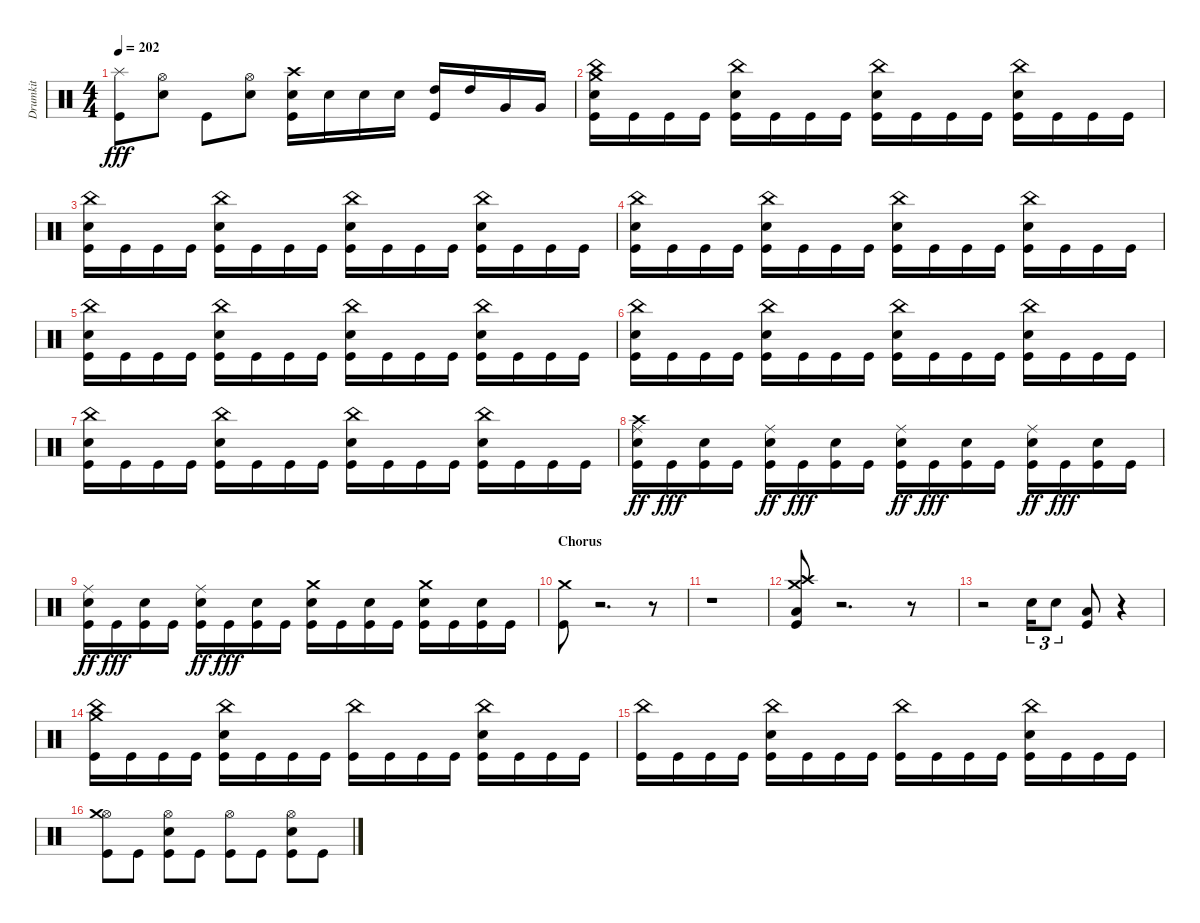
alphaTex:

\track ("Drumkit" "Drumkit") {instrument percussion}
\staff {score}
\articulation defaults
\ts (4 4)
\tempo 202
\clef neutral
\ks c
("Splash (hit)" "Kick (hit)").8{dy fff} ("Snare (hit) 2" "Hi-Hat (open)").8 "Kick (hit)".8 ("Snare (hit) 2" "Hi-Hat (open)").8 ("Snare (hit) 2" "Crash high (hit)" "Kick (hit)").16 "Snare (hit) 2".16 "Snare (hit) 2".16 "Snare (hit) 2".16 ("High Tom (hit)" "Kick (hit)").16 "High Tom (hit)".16 "Very Low Tom (hit)".16 "Very Low Tom (hit)".16 |
("China (hit)" "Snare (hit) 2" "Crash medium (hit)" "Kick (hit)").16 "Kick (hit)".16 "Kick (hit)".16 "Kick (hit)".16 ("China (hit)" "Snare (hit) 2" "Kick (hit)").16 "Kick (hit)".16 "Kick (hit)".16 "Kick (hit)".16 ("China (hit)" "Snare (hit) 2" "Kick (hit)").16 "Kick (hit)".16 "Kick (hit)".16 "Kick (hit)".16 ("China (hit)" "Snare (hit) 2" "Kick (hit)").16 "Kick (hit)".16 "Kick (hit)".16 "Kick (hit)".16 |
("China (hit)" "Snare (hit) 2" "Kick (hit)").16 "Kick (hit)".16 "Kick (hit)".16 "Kick (hit)".16 ("China (hit)" "Snare (hit) 2" "Kick (hit)").16 "Kick (hit)".16 "Kick (hit)".16 "Kick (hit)".16 ("China (hit)" "Snare (hit) 2" "Kick (hit)").16 "Kick (hit)".16 "Kick (hit)".16 "Kick (hit)".16 ("China (hit)" "Snare (hit) 2" "Kick (hit)").16 "Kick (hit)".16 "Kick (hit)".16 "Kick (hit)".16 |
("China (hit)" "Snare (hit) 2" "Kick (hit)").16 "Kick (hit)".16 "Kick (hit)".16 "Kick (hit)".16 ("China (hit)" "Snare (hit) 2" "Kick (hit)").16 "Kick (hit)".16 "Kick (hit)".16 "Kick (hit)".16 ("China (hit)" "Snare (hit) 2" "Kick (hit)").16 "Kick (hit)".16 "Kick (hit)".16 "Kick (hit)".16 ("China (hit)" "Snare (hit) 2" "Kick (hit)").16 "Kick (hit)".16 "Kick (hit)".16 "Kick (hit)".16 |
("China (hit)" "Snare (hit) 2" "Kick (hit)").16 "Kick (hit)".16 "Kick (hit)".16 "Kick (hit)".16 ("China (hit)" "Snare (hit) 2" "Kick (hit)").16 "Kick (hit)".16 "Kick (hit)".16 "Kick (hit)".16 ("China (hit)" "Snare (hit) 2" "Kick (hit)").16 "Kick (hit)".16 "Kick (hit)".16 "Kick (hit)".16 ("China (hit)" "Snare (hit) 2" "Kick (hit)").16 "Kick (hit)".16 "Kick (hit)".16 "Kick (hit)".16 |
("China (hit)" "Snare (hit) 2" "Kick (hit)").16 "Kick (hit)".16 "Kick (hit)".16 "Kick (hit)".16 ("China (hit)" "Snare (hit) 2" "Kick (hit)").16 "Kick (hit)".16 "Kick (hit)".16 "Kick (hit)".16 ("China (hit)" "Snare (hit) 2" "Kick (hit)").16 "Kick (hit)".16 "Kick (hit)".16 "Kick (hit)".16 ("China (hit)" "Snare (hit) 2" "Kick (hit)").16 "Kick (hit)".16 "Kick (hit)".16 "Kick (hit)".16 |
("China (hit)" "Snare (hit) 2" "Kick (hit)").16 "Kick (hit)".16 "Kick (hit)".16 "Kick (hit)".16 ("China (hit)" "Snare (hit) 2" "Kick (hit)").16 "Kick (hit)".16 "Kick (hit)".16 "Kick (hit)".16 ("China (hit)" "Snare (hit) 2" "Kick (hit)").16 "Kick (hit)".16 "Kick (hit)".16 "Kick (hit)".16 ("China (hit)" "Snare (hit) 2" "Kick (hit)").16 "Kick (hit)".16 "Kick (hit)".16 "Kick (hit)".16 |
("Ride (middle)" "Snare (hit) 2" "Crash high (hit)" "Kick (hit)").16{dy ff} "Kick (hit)".16{dy fff} ("Snare (hit) 2" "Kick (hit)").16 "Kick (hit)".16 ("Ride (middle)" "Snare (hit) 2" "Kick (hit)").16{dy ff} "Kick (hit)".16{dy fff} ("Snare (hit) 2" "Kick (hit)").16 "Kick (hit)".16 ("Ride (middle)" "Snare (hit) 2" "Kick (hit)").16{dy ff} "Kick (hit)".16{dy fff} ("Snare (hit) 2" "Kick (hit)").16 "Kick (hit)".16 ("Ride (middle)" "Snare (hit) 2" "Kick (hit)").16{dy ff} "Kick (hit)".16{dy fff} ("Snare (hit) 2" "Kick (hit)").16 "Kick (hit)".16 |
("Ride (middle)" "Snare (hit) 2" "Kick (hit)").16{dy ff} "Kick (hit)".16{dy fff} ("Snare (hit) 2" "Kick (hit)").16 "Kick (hit)".16 ("Ride (middle)" "Snare (hit) 2" "Kick (hit)").16{dy ff} "Kick (hit)".16{dy fff} ("Snare (hit) 2" "Kick (hit)").16 "Kick (hit)".16 ("Snare (hit) 2" "Crash medium (hit)" "Kick (hit)").16 "Kick (hit)".16 ("Snare (hit) 2" "Kick (hit)").16 "Kick (hit)".16 ("Snare (hit) 2" "Crash medium (hit)" "Kick (hit)").16 "Kick (hit)".16 ("Snare (hit) 2" "Kick (hit)").16 "Kick (hit)".16 |
\section ("" "Chorus")
("Crash medium (hit)" "Kick (hit)").8 r.2{d} r.8 |
r.1 |
("Low Tom (hit)" "Crash medium (hit)" "Crash high (hit)" "Kick (hit)").8 r.2{d} r.8 |
r.2 "Snare (hit) 2".16{tu (3 2)} "Snare (hit) 2".8{tu (3 2)} ("Low Tom (hit)" "Kick (hit)").8 r.4 |
("China (hit)" "Crash medium (hit)" "Kick (hit)").16 "Kick (hit)".16 "Kick (hit)".16 "Kick (hit)".16 ("China (hit)" "Snare (hit) 2" "Kick (hit)").16 "Kick (hit)".16 "Kick (hit)".16 "Kick (hit)".16 ("China (hit)" "Kick (hit)").16 "Kick (hit)".16 "Kick (hit)".16 "Kick (hit)".16 ("China (hit)" "Snare (hit) 2" "Kick (hit)").16 "Kick (hit)".16 "Kick (hit)".16 "Kick (hit)".16 |
("China (hit)" "Kick (hit)").16 "Kick (hit)".16 "Kick (hit)".16 "Kick (hit)".16 ("China (hit)" "Snare (hit) 2" "Kick (hit)").16 "Kick (hit)".16 "Kick (hit)".16 "Kick (hit)".16 ("China (hit)" "Kick (hit)").16 "Kick (hit)".16 "Kick (hit)".16 "Kick (hit)".16 ("China (hit)" "Snare (hit) 2" "Kick (hit)").16 "Kick (hit)".16 "Kick (hit)".16 "Kick (hit)".16 |
("Hi-Hat (open)" "Crash medium (hit)" "Kick (hit)").8 "Kick (hit)".8 ("Snare (hit) 2" "Hi-Hat (open)" "Kick (hit)").8 "Kick (hit)".8 ("Hi-Hat (open)" "Kick (hit)").8 "Kick (hit)".8 ("Snare (hit) 2" "Hi-Hat (open)" "Kick (hit)").8 "Kick (hit)".8
